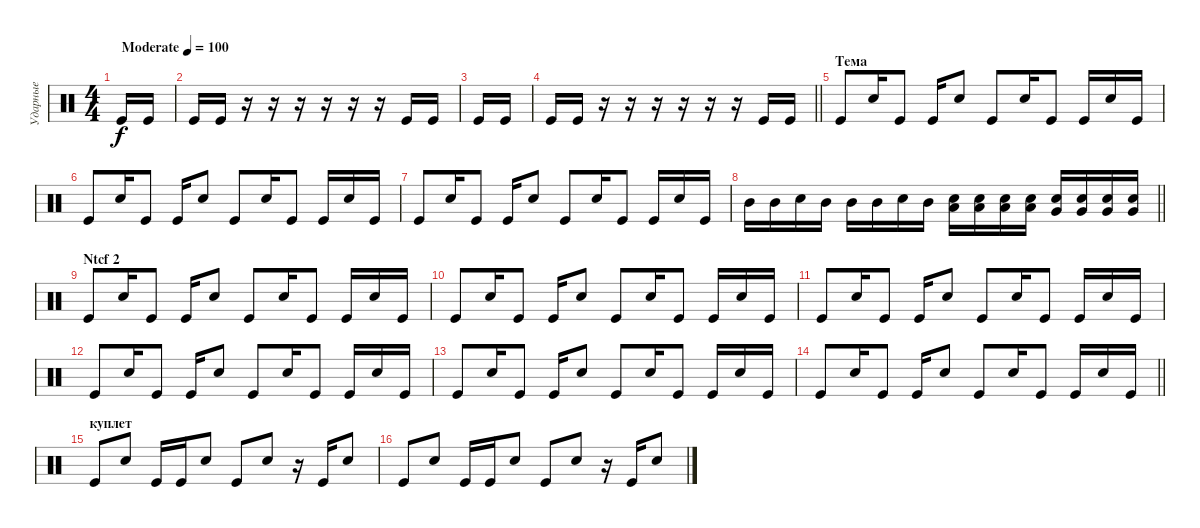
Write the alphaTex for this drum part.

\track ("Ударные" "Ударные") {instrument percussion}
\staff {score}
\articulation defaults
\ts (4 4)
\tempo (100 "Moderate")
\clef neutral
\ks c "Kick (hit)".16{dy f} "Kick (hit)".16
|
"Kick (hit)".16 "Kick (hit)".16 r.16 r.16 r.16 r.16 r.16 r.16 "Kick (hit)".16 "Kick (hit)".16 |
"Kick (hit)".16 "Kick (hit)".16 |
\barLineRight lightlight "Kick (hit)".16 "Kick (hit)".16
r.16 r.16 r.16 r.16 r.16 r.16 "Kick (hit)".16 "Kick (hit)".16 |
\section ("" "Тема")
"Kick (hit)".8 "Snare (hit) 2".16 "Kick (hit)".8 "Kick (hit)".16 "Snare (hit) 2".8 "Kick (hit)".8 "Snare (hit) 2".16 "Kick (hit)".8 "Kick (hit)".16 "Snare (hit) 2".16 "Kick (hit)".16 |
"Kick (hit)".8 "Snare (hit) 2".16 "Kick (hit)".8 "Kick (hit)".16 "Snare (hit) 2".8 "Kick (hit)".8 "Snare (hit) 2".16 "Kick (hit)".8 "Kick (hit)".16 "Snare (hit) 2".16 "Kick (hit)".16 |
"Kick (hit)".8 "Snare (hit) 2".16 "Kick (hit)".8 "Kick (hit)".16 "Snare (hit) 2".8 "Kick (hit)".8 "Snare (hit) 2".16 "Kick (hit)".8 "Kick (hit)".16 "Snare (hit) 2".16 "Kick (hit)".16 |
\barLineRight lightlight "Mid Tom (hit)".16 "Mid Tom (hit)".16 "Snare (hit) 2".16 "Mid Tom (hit)".16 "Mid Tom (hit)".16 "Mid Tom (hit)".16 "Snare (hit) 2".16 "Mid Tom (hit)".16
("Low Tom (hit)" "Snare (hit) 2").16 ("Low Tom (hit)" "Snare (hit) 2").16 ("Low Tom (hit)" "Snare (hit) 2").16 ("Low Tom (hit)" "Snare (hit) 2").16 ("Very Low Tom (hit)" "Snare (hit) 2").16 ("Very Low Tom (hit)" "Snare (hit) 2").16 ("Very Low Tom (hit)" "Snare (hit) 2").16 ("Very Low Tom (hit)" "Snare (hit) 2").16 |
\section ("" "Ntcf 2")
"Kick (hit)".8 "Snare (hit) 2".16 "Kick (hit)".8 "Kick (hit)".16 "Snare (hit) 2".8 "Kick (hit)".8 "Snare (hit) 2".16 "Kick (hit)".8 "Kick (hit)".16 "Snare (hit) 2".16 "Kick (hit)".16 |
"Kick (hit)".8 "Snare (hit) 2".16 "Kick (hit)".8 "Kick (hit)".16 "Snare (hit) 2".8 "Kick (hit)".8 "Snare (hit) 2".16 "Kick (hit)".8 "Kick (hit)".16 "Snare (hit) 2".16 "Kick (hit)".16 |
"Kick (hit)".8 "Snare (hit) 2".16 "Kick (hit)".8 "Kick (hit)".16 "Snare (hit) 2".8 "Kick (hit)".8 "Snare (hit) 2".16 "Kick (hit)".8 "Kick (hit)".16 "Snare (hit) 2".16 "Kick (hit)".16 |
"Kick (hit)".8 "Snare (hit) 2".16 "Kick (hit)".8 "Kick (hit)".16 "Snare (hit) 2".8 "Kick (hit)".8 "Snare (hit) 2".16 "Kick (hit)".8 "Kick (hit)".16 "Snare (hit) 2".16 "Kick (hit)".16 |
"Kick (hit)".8 "Snare (hit) 2".16 "Kick (hit)".8 "Kick (hit)".16 "Snare (hit) 2".8 "Kick (hit)".8 "Snare (hit) 2".16 "Kick (hit)".8 "Kick (hit)".16 "Snare (hit) 2".16 "Kick (hit)".16 |
\barLineRight lightlight "Kick (hit)".8 "Snare (hit) 2".16 "Kick (hit)".8 "Kick (hit)".16 "Snare (hit) 2".8 "Kick (hit)".8 "Snare (hit) 2".16 "Kick (hit)".8 "Kick (hit)".16 "Snare (hit) 2".16 "Kick (hit)".16
|
\section ("" "куплет")
"Kick (hit)".8 "Snare (hit) 2".8 "Kick (hit)".16 "Kick (hit)".16 "Snare (hit) 2".8 "Kick (hit)".8 "Snare (hit) 2".8 r.16 "Kick (hit)".16 "Snare (hit) 2".8 |
"Kick (hit)".8 "Snare (hit) 2".8 "Kick (hit)".16 "Kick (hit)".16 "Snare (hit) 2".8 "Kick (hit)".8 "Snare (hit) 2".8 r.16 "Kick (hit)".16 "Snare (hit) 2".8
